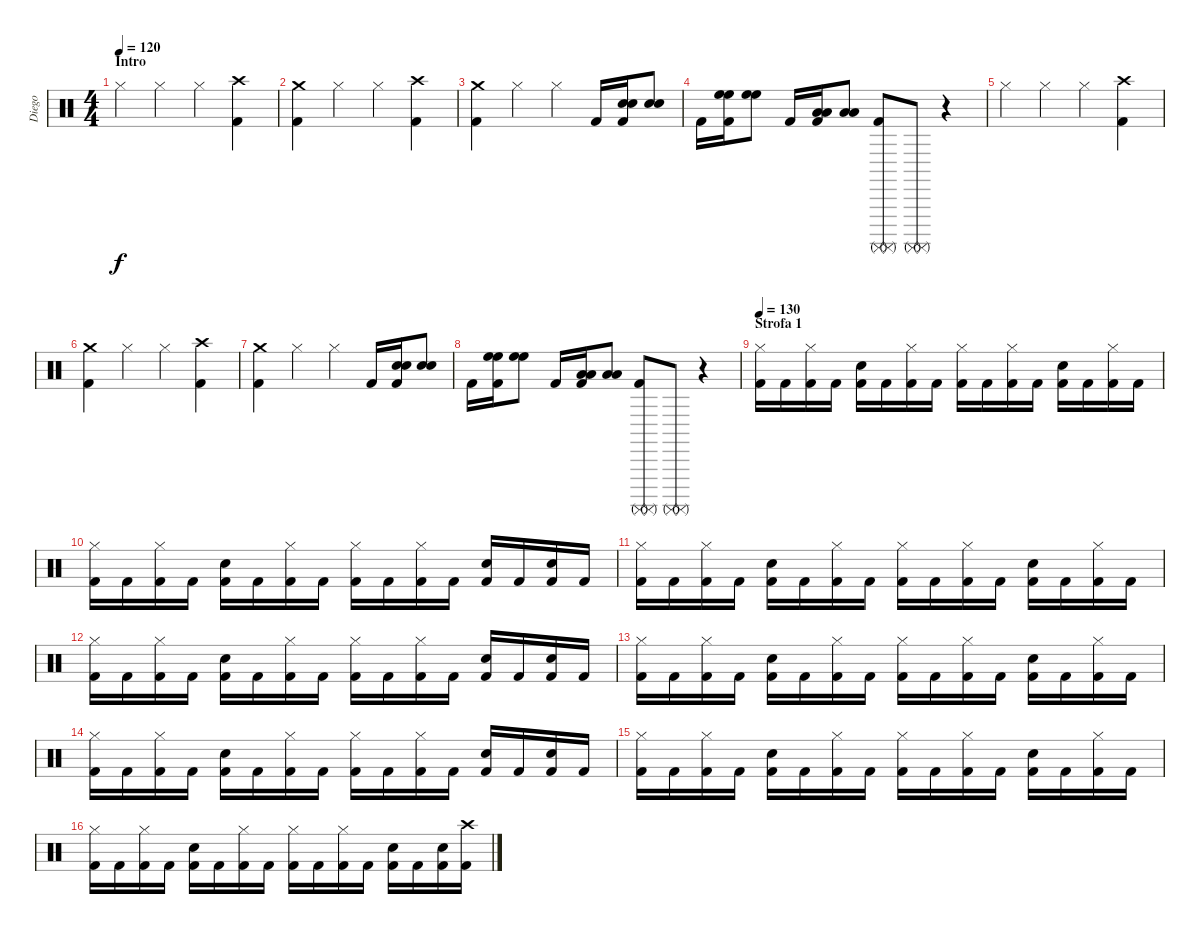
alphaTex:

\track ("Diego" "Diego") {instrument percussion}
\staff {score}
\articulation defaults
\ts (4 4)
\section ("" "Intro")
\tempo 120
\tempo 125
\tempo 120
\clef neutral
\ks c "Hi-Hat (closed)".4{dy f} "Hi-Hat (closed)".4 "Hi-Hat (closed)".4
("Crash high (hit)" "Kick (hit) 2").4 |
("Crash medium (hit)" "Kick (hit) 2").4 "Hi-Hat (closed)".4 "Hi-Hat (closed)".4 ("Crash high (hit)" "Kick (hit) 2").4 |
("Crash medium (hit)" "Kick (hit) 2").4 "Hi-Hat (closed)".4 "Hi-Hat (closed)".4 "Kick (hit) 2".16 ("Snare (hit) 2" "Snare (hit) 2" "Kick (hit) 2").16 ("Snare (hit) 2" "Snare (hit) 2").8 |
"Kick (hit) 2".16 ("High Floor Tom (hit)" "High Floor Tom (hit)" "Kick (hit) 2").16 ("High Floor Tom (hit)" "High Floor Tom (hit)").8 "Kick (hit) 2".16 ("Low Tom (hit)" "Low Tom (hit)" "Kick (hit) 2").16 ("Low Tom (hit)" "Low Tom (hit)").8 ("Surdo (mute)" "Surdo (mute)" "Kick (hit) 2").8 ("Surdo (mute)" "Surdo (mute)").8 r.4 |
"Hi-Hat (closed)".4 "Hi-Hat (closed)".4 "Hi-Hat (closed)".4 ("Crash high (hit)" "Kick (hit) 2").4 |
("Crash medium (hit)" "Kick (hit) 2").4 "Hi-Hat (closed)".4 "Hi-Hat (closed)".4 ("Crash high (hit)" "Kick (hit) 2").4 |
("Crash medium (hit)" "Kick (hit) 2").4 "Hi-Hat (closed)".4 "Hi-Hat (closed)".4 "Kick (hit) 2".16 ("Snare (hit) 2" "Snare (hit) 2" "Kick (hit) 2").16 ("Snare (hit) 2" "Snare (hit) 2").8 |
"Kick (hit) 2".16 ("High Floor Tom (hit)" "High Floor Tom (hit)" "Kick (hit) 2").16 ("High Floor Tom (hit)" "High Floor Tom (hit)").8 "Kick (hit) 2".16 ("Low Tom (hit)" "Low Tom (hit)" "Kick (hit) 2").16 ("Low Tom (hit)" "Low Tom (hit)").8 ("Surdo (mute)" "Surdo (mute)" "Kick (hit) 2").8 ("Surdo (mute)" "Surdo (mute)").8 r.4 |
\section ("" "Strofa 1")
\tempo 130
("Hi-Hat (closed)" "Kick (hit) 2").16 "Kick (hit) 2".16 ("Hi-Hat (closed)" "Kick (hit) 2").16 "Kick (hit) 2".16 ("Snare (hit) 2" "Kick (hit) 2").16 "Kick (hit) 2".16 ("Hi-Hat (closed)" "Kick (hit) 2").16 "Kick (hit) 2".16 ("Hi-Hat (closed)" "Kick (hit) 2").16 "Kick (hit) 2".16 ("Hi-Hat (closed)" "Kick (hit) 2").16 "Kick (hit) 2".16 ("Snare (hit) 2" "Kick (hit) 2").16 "Kick (hit) 2".16 ("Hi-Hat (closed)" "Kick (hit) 2").16 "Kick (hit) 2".16 |
("Hi-Hat (closed)" "Kick (hit) 2").16 "Kick (hit) 2".16 ("Hi-Hat (closed)" "Kick (hit) 2").16 "Kick (hit) 2".16 ("Snare (hit) 2" "Kick (hit) 2").16 "Kick (hit) 2".16 ("Hi-Hat (closed)" "Kick (hit) 2").16 "Kick (hit) 2".16 ("Hi-Hat (closed)" "Kick (hit) 2").16 "Kick (hit) 2".16 ("Hi-Hat (closed)" "Kick (hit) 2").16 "Kick (hit) 2".16 ("Snare (hit) 2" "Kick (hit) 2").16 "Kick (hit) 2".16 ("Snare (hit) 2" "Kick (hit) 2").16 "Kick (hit) 2".16 |
("Hi-Hat (closed)" "Kick (hit) 2").16 "Kick (hit) 2".16 ("Hi-Hat (closed)" "Kick (hit) 2").16 "Kick (hit) 2".16 ("Snare (hit) 2" "Kick (hit) 2").16 "Kick (hit) 2".16 ("Hi-Hat (closed)" "Kick (hit) 2").16 "Kick (hit) 2".16 ("Hi-Hat (closed)" "Kick (hit) 2").16 "Kick (hit) 2".16 ("Hi-Hat (closed)" "Kick (hit) 2").16 "Kick (hit) 2".16 ("Snare (hit) 2" "Kick (hit) 2").16 "Kick (hit) 2".16 ("Hi-Hat (closed)" "Kick (hit) 2").16 "Kick (hit) 2".16 |
("Hi-Hat (closed)" "Kick (hit) 2").16 "Kick (hit) 2".16 ("Hi-Hat (closed)" "Kick (hit) 2").16 "Kick (hit) 2".16 ("Snare (hit) 2" "Kick (hit) 2").16 "Kick (hit) 2".16 ("Hi-Hat (closed)" "Kick (hit) 2").16 "Kick (hit) 2".16 ("Hi-Hat (closed)" "Kick (hit) 2").16 "Kick (hit) 2".16 ("Hi-Hat (closed)" "Kick (hit) 2").16 "Kick (hit) 2".16 ("Snare (hit) 2" "Kick (hit) 2").16 "Kick (hit) 2".16 ("Snare (hit) 2" "Kick (hit) 2").16 "Kick (hit) 2".16 |
("Hi-Hat (closed)" "Kick (hit) 2").16 "Kick (hit) 2".16 ("Hi-Hat (closed)" "Kick (hit) 2").16 "Kick (hit) 2".16 ("Snare (hit) 2" "Kick (hit) 2").16 "Kick (hit) 2".16 ("Hi-Hat (closed)" "Kick (hit) 2").16 "Kick (hit) 2".16 ("Hi-Hat (closed)" "Kick (hit) 2").16 "Kick (hit) 2".16 ("Hi-Hat (closed)" "Kick (hit) 2").16 "Kick (hit) 2".16 ("Snare (hit) 2" "Kick (hit) 2").16 "Kick (hit) 2".16 ("Hi-Hat (closed)" "Kick (hit) 2").16 "Kick (hit) 2".16 |
("Hi-Hat (closed)" "Kick (hit) 2").16 "Kick (hit) 2".16 ("Hi-Hat (closed)" "Kick (hit) 2").16 "Kick (hit) 2".16 ("Snare (hit) 2" "Kick (hit) 2").16 "Kick (hit) 2".16 ("Hi-Hat (closed)" "Kick (hit) 2").16 "Kick (hit) 2".16 ("Hi-Hat (closed)" "Kick (hit) 2").16 "Kick (hit) 2".16 ("Hi-Hat (closed)" "Kick (hit) 2").16 "Kick (hit) 2".16 ("Snare (hit) 2" "Kick (hit) 2").16 "Kick (hit) 2".16 ("Snare (hit) 2" "Kick (hit) 2").16 "Kick (hit) 2".16 |
("Hi-Hat (closed)" "Kick (hit) 2").16 "Kick (hit) 2".16 ("Hi-Hat (closed)" "Kick (hit) 2").16 "Kick (hit) 2".16 ("Snare (hit) 2" "Kick (hit) 2").16 "Kick (hit) 2".16 ("Hi-Hat (closed)" "Kick (hit) 2").16 "Kick (hit) 2".16 ("Hi-Hat (closed)" "Kick (hit) 2").16 "Kick (hit) 2".16 ("Hi-Hat (closed)" "Kick (hit) 2").16 "Kick (hit) 2".16 ("Snare (hit) 2" "Kick (hit) 2").16 "Kick (hit) 2".16 ("Hi-Hat (closed)" "Kick (hit) 2").16 "Kick (hit) 2".16 |
("Hi-Hat (closed)" "Kick (hit) 2").16 "Kick (hit) 2".16 ("Hi-Hat (closed)" "Kick (hit) 2").16 "Kick (hit) 2".16 ("Snare (hit) 2" "Kick (hit) 2").16 "Kick (hit) 2".16 ("Hi-Hat (closed)" "Kick (hit) 2").16 "Kick (hit) 2".16 ("Hi-Hat (closed)" "Kick (hit) 2").16 "Kick (hit) 2".16 ("Hi-Hat (closed)" "Kick (hit) 2").16 "Kick (hit) 2".16 ("Snare (hit) 2" "Kick (hit) 2").16 "Kick (hit) 2".16 ("Snare (hit) 2" "Kick (hit) 2").16 ("Crash high (hit)" "Kick (hit) 2").16
